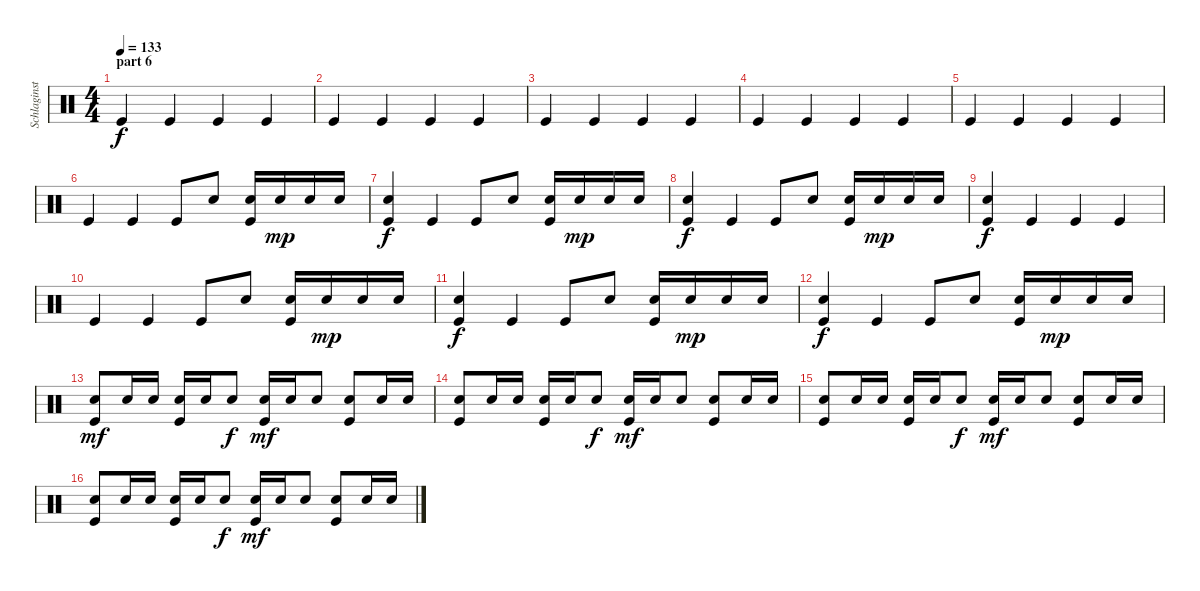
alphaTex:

\track ("Schlaginstrumente - Auswahl" "Schlaginst") {instrument percussion}
\staff {score}
\articulation defaults
\ts (4 4)
\section ("" "part 6")
\tempo 133
\clef neutral
\ks c "Kick (hit)".4{dy f} "Kick (hit)".4 "Kick (hit)".4 "Kick (hit)".4
|
"Kick (hit)".4 "Kick (hit)".4 "Kick (hit)".4 "Kick (hit)".4 |
"Kick (hit)".4 "Kick (hit)".4 "Kick (hit)".4 "Kick (hit)".4 |
"Kick (hit)".4 "Kick (hit)".4 "Kick (hit)".4 "Kick (hit)".4 |
"Kick (hit)".4 "Kick (hit)".4 "Kick (hit)".4 "Kick (hit)".4 |
"Kick (hit)".4 "Kick (hit)".4 "Kick (hit)".8 "Snare (hit) 2".8 ("Snare (hit) 2" "Kick (hit)").16 "Snare (hit) 2".16{dy mp} "Snare (hit) 2".16 "Snare (hit) 2".16 |
("Snare (hit) 2" "Kick (hit)").4{dy f} "Kick (hit)".4 "Kick (hit)".8 "Snare (hit) 2".8 ("Snare (hit) 2" "Kick (hit)").16 "Snare (hit) 2".16{dy mp} "Snare (hit) 2".16 "Snare (hit) 2".16 |
("Snare (hit) 2" "Kick (hit)").4{dy f} "Kick (hit)".4 "Kick (hit)".8 "Snare (hit) 2".8 ("Snare (hit) 2" "Kick (hit)").16 "Snare (hit) 2".16{dy mp} "Snare (hit) 2".16 "Snare (hit) 2".16 |
("Snare (hit) 2" "Kick (hit)").4{dy f} "Kick (hit)".4 "Kick (hit)".4 "Kick (hit)".4 |
"Kick (hit)".4 "Kick (hit)".4 "Kick (hit)".8 "Snare (hit) 2".8 ("Snare (hit) 2" "Kick (hit)").16 "Snare (hit) 2".16{dy mp} "Snare (hit) 2".16 "Snare (hit) 2".16 |
("Snare (hit) 2" "Kick (hit)").4{dy f} "Kick (hit)".4 "Kick (hit)".8 "Snare (hit) 2".8 ("Snare (hit) 2" "Kick (hit)").16 "Snare (hit) 2".16{dy mp} "Snare (hit) 2".16 "Snare (hit) 2".16 |
("Snare (hit) 2" "Kick (hit)").4{dy f} "Kick (hit)".4 "Kick (hit)".8 "Snare (hit) 2".8 ("Snare (hit) 2" "Kick (hit)").16 "Snare (hit) 2".16{dy mp} "Snare (hit) 2".16 "Snare (hit) 2".16 |
("Snare (hit) 2" "Kick (hit)").8{dy mf} "Snare (hit) 2".16 "Snare (hit) 2".16 ("Snare (hit) 2" "Kick (hit)").16 "Snare (hit) 2".16 "Snare (hit) 2".8{dy f} ("Snare (hit) 2" "Kick (hit)").16{dy mf} "Snare (hit) 2".16 "Snare (hit) 2".8 ("Snare (hit) 2" "Kick (hit)").8 "Snare (hit) 2".16 "Snare (hit) 2".16 |
("Snare (hit) 2" "Kick (hit)").8 "Snare (hit) 2".16 "Snare (hit) 2".16 ("Snare (hit) 2" "Kick (hit)").16 "Snare (hit) 2".16 "Snare (hit) 2".8{dy f} ("Snare (hit) 2" "Kick (hit)").16{dy mf} "Snare (hit) 2".16 "Snare (hit) 2".8 ("Snare (hit) 2" "Kick (hit)").8 "Snare (hit) 2".16 "Snare (hit) 2".16 |
("Snare (hit) 2" "Kick (hit)").8 "Snare (hit) 2".16 "Snare (hit) 2".16 ("Snare (hit) 2" "Kick (hit)").16 "Snare (hit) 2".16 "Snare (hit) 2".8{dy f} ("Snare (hit) 2" "Kick (hit)").16{dy mf} "Snare (hit) 2".16 "Snare (hit) 2".8 ("Snare (hit) 2" "Kick (hit)").8 "Snare (hit) 2".16 "Snare (hit) 2".16 |
("Snare (hit) 2" "Kick (hit)").8 "Snare (hit) 2".16 "Snare (hit) 2".16 ("Snare (hit) 2" "Kick (hit)").16 "Snare (hit) 2".16 "Snare (hit) 2".8{dy f} ("Snare (hit) 2" "Kick (hit)").16{dy mf} "Snare (hit) 2".16 "Snare (hit) 2".8 ("Snare (hit) 2" "Kick (hit)").8 "Snare (hit) 2".16 "Snare (hit) 2".16
